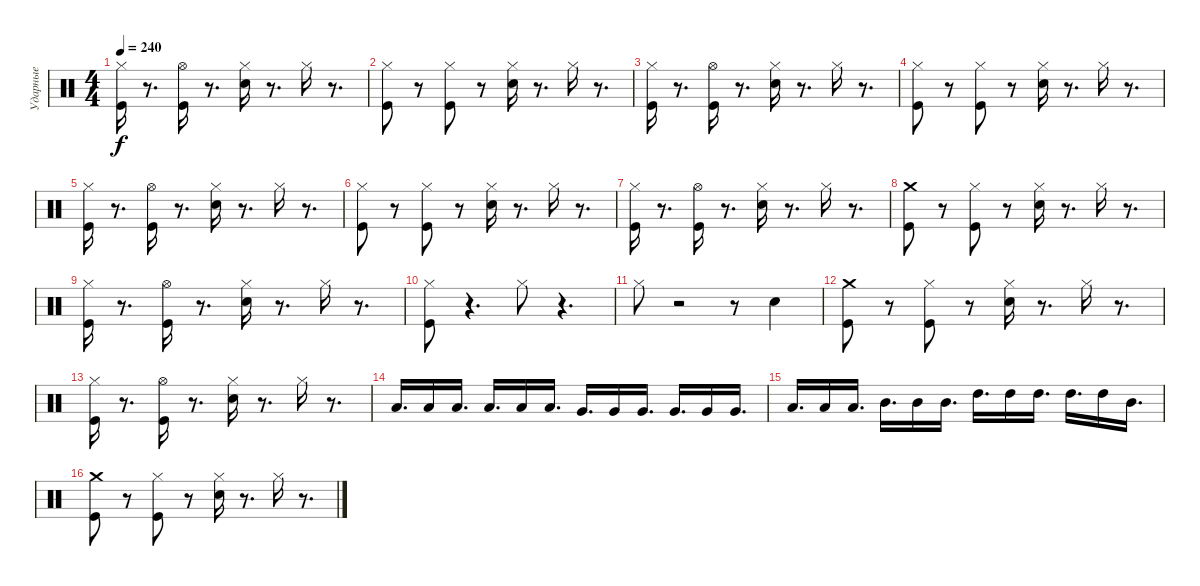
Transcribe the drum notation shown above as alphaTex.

\track ("Ударные" "Ударные") {instrument percussion}
\staff {score}
\articulation defaults
\ts (4 4)
\tempo 240
\clef neutral
\ks c
("Kick (hit)" "Hi-Hat (closed)").16{dy f} r.8{d} ("Kick (hit)" "Hi-Hat (open)").16 r.8{d} ("Snare (hit) 2" "Hi-Hat (closed)").16 r.8{d} "Hi-Hat (closed)".16 r.8{d} |
("Hi-Hat (closed)" "Kick (hit)").8 r.8 ("Kick (hit)" "Hi-Hat (closed)").8 r.8 ("Snare (hit) 2" "Hi-Hat (closed)").16 r.8{d} "Hi-Hat (closed)".16 r.8{d} |
("Kick (hit)" "Hi-Hat (closed)").16 r.8{d} ("Kick (hit)" "Hi-Hat (open)").16 r.8{d} ("Snare (hit) 2" "Hi-Hat (closed)").16 r.8{d} "Hi-Hat (closed)".16 r.8{d} |
("Hi-Hat (closed)" "Kick (hit)").8 r.8 ("Kick (hit)" "Hi-Hat (closed)").8 r.8 ("Snare (hit) 2" "Hi-Hat (closed)").16 r.8{d} "Hi-Hat (closed)".16 r.8{d} |
("Kick (hit)" "Hi-Hat (closed)").16 r.8{d} ("Kick (hit)" "Hi-Hat (open)").16 r.8{d} ("Snare (hit) 2" "Hi-Hat (closed)").16 r.8{d} "Hi-Hat (closed)".16 r.8{d} |
("Hi-Hat (closed)" "Kick (hit)").8 r.8 ("Kick (hit)" "Hi-Hat (closed)").8 r.8 ("Snare (hit) 2" "Hi-Hat (closed)").16 r.8{d} "Hi-Hat (closed)".16 r.8{d} |
("Kick (hit)" "Hi-Hat (closed)").16 r.8{d} ("Kick (hit)" "Hi-Hat (open)").16 r.8{d} ("Snare (hit) 2" "Hi-Hat (closed)").16 r.8{d} "Hi-Hat (closed)".16 r.8{d} |
("Crash medium (hit)" "Kick (hit)").8 r.8 ("Kick (hit)" "Hi-Hat (closed)").8 r.8 ("Snare (hit) 2" "Hi-Hat (closed)").16 r.8{d} "Hi-Hat (closed)".16 r.8{d} |
("Kick (hit)" "Hi-Hat (closed)").16 r.8{d} ("Kick (hit)" "Hi-Hat (open)").16 r.8{d} ("Snare (hit) 2" "Hi-Hat (closed)").16 r.8{d} "Hi-Hat (closed)".16 r.8{d} |
("Hi-Hat (closed)" "Kick (hit)").8 r.4{d} "Hi-Hat (closed)".8 r.4{d} |
"Hi-Hat (closed)".8 r.2 r.8 "Snare (hit) 2".4 |
("Crash medium (hit)" "Kick (hit)").8 r.8 ("Kick (hit)" "Hi-Hat (closed)").8 r.8 ("Snare (hit) 2" "Hi-Hat (closed)").16 r.8{d} "Hi-Hat (closed)".16 r.8{d} |
("Kick (hit)" "Hi-Hat (closed)").16 r.8{d} ("Kick (hit)" "Hi-Hat (open)").16 r.8{d} ("Snare (hit) 2" "Hi-Hat (closed)").16 r.8{d} "Hi-Hat (closed)".16 r.8{d} |
"Low Floor Tom (hit)".16{d} "Low Floor Tom (hit)".16 "Low Floor Tom (hit)".16{d} "Low Floor Tom (hit)".16{d} "Low Floor Tom (hit)".16 "Low Floor Tom (hit)".16{d} "Very Low Tom (hit)".16{d} "Very Low Tom (hit)".16 "Very Low Tom (hit)".16{d} "Very Low Tom (hit)".16{d} "Very Low Tom (hit)".16 "Very Low Tom (hit)".16{d} |
"Low Tom (hit)".16{d} "Low Tom (hit)".16 "Low Tom (hit)".16{d} "Mid Tom (hit)".16{d} "Mid Tom (hit)".16 "Mid Tom (hit)".16{d} "High Tom (hit)".16{d} "High Tom (hit)".16 "High Tom (hit)".16{d} "High Tom (hit)".16{d} "High Tom (hit)".16 "Mid Tom (hit)".16{d} |
("Crash medium (hit)" "Kick (hit)").8 r.8 ("Kick (hit)" "Hi-Hat (closed)").8 r.8 ("Snare (hit) 2" "Hi-Hat (closed)").16 r.8{d} "Hi-Hat (closed)".16 r.8{d}
